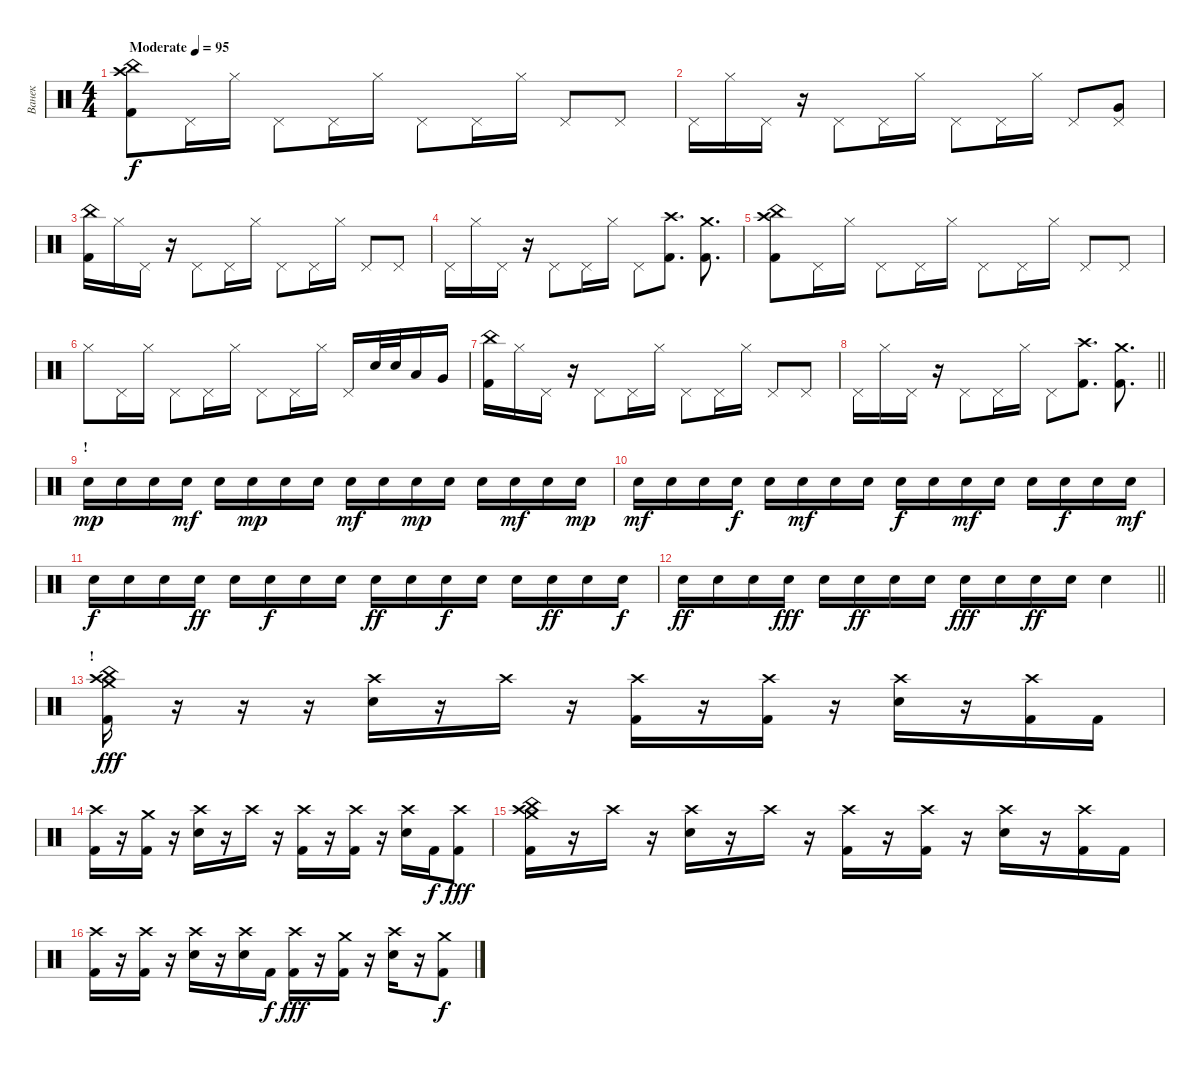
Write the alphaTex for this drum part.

\track ("Ванек" "Ванек") {instrument percussion}
\staff {score}
\articulation defaults
\ts (4 4)
\tempo (95 "Moderate")
\clef neutral
\ks c
("Crash high (hit)" "China (hit)" "Kick (hit) 2").8{dy f} "Pedal Hi-Hat (hit)".16 "Hi-Hat (closed)".16 "Pedal Hi-Hat (hit)".8 "Pedal Hi-Hat (hit)".16 "Hi-Hat (closed)".16 "Pedal Hi-Hat (hit)".8 "Pedal Hi-Hat (hit)".16 "Hi-Hat (closed)".16 "Pedal Hi-Hat (hit)".8 "Pedal Hi-Hat (hit)".8 |
"Pedal Hi-Hat (hit)".16 "Hi-Hat (closed)".16 "Pedal Hi-Hat (hit)".16 r.16 "Pedal Hi-Hat (hit)".8 "Pedal Hi-Hat (hit)".16 "Hi-Hat (closed)".16 "Pedal Hi-Hat (hit)".8 "Pedal Hi-Hat (hit)".16 "Hi-Hat (closed)".16 "Pedal Hi-Hat (hit)".8 ("Pedal Hi-Hat (hit)" "Very Low Tom (hit)").8 |
("China (hit)" "Kick (hit) 2").16 "Hi-Hat (closed)".16 "Pedal Hi-Hat (hit)".16 r.16 "Pedal Hi-Hat (hit)".8 "Pedal Hi-Hat (hit)".16 "Hi-Hat (closed)".16 "Pedal Hi-Hat (hit)".8 "Pedal Hi-Hat (hit)".16 "Hi-Hat (closed)".16 "Pedal Hi-Hat (hit)".8 "Pedal Hi-Hat (hit)".8 |
"Pedal Hi-Hat (hit)".16 "Hi-Hat (closed)".16 "Pedal Hi-Hat (hit)".16 r.16 "Pedal Hi-Hat (hit)".8 "Pedal Hi-Hat (hit)".16 "Hi-Hat (closed)".16 "Pedal Hi-Hat (hit)".8 ("Crash high (hit)" "Kick (hit) 2").8{d} ("Crash medium (hit)" "Kick (hit) 2").8{d} |
("Crash high (hit)" "China (hit)" "Kick (hit) 2").8 "Pedal Hi-Hat (hit)".16 "Hi-Hat (closed)".16 "Pedal Hi-Hat (hit)".8 "Pedal Hi-Hat (hit)".16 "Hi-Hat (closed)".16 "Pedal Hi-Hat (hit)".8 "Pedal Hi-Hat (hit)".16 "Hi-Hat (closed)".16 "Pedal Hi-Hat (hit)".8 "Pedal Hi-Hat (hit)".8 |
"Hi-Hat (closed)".8 "Pedal Hi-Hat (hit)".16 "Hi-Hat (closed)".16 "Pedal Hi-Hat (hit)".8 "Pedal Hi-Hat (hit)".16 "Hi-Hat (closed)".16 "Pedal Hi-Hat (hit)".8 "Pedal Hi-Hat (hit)".16 "Hi-Hat (closed)".16 "Pedal Hi-Hat (hit)".16 "Snare (hit) 2".32 "Snare (hit) 2".32 "Low Floor Tom (hit)".16 "Very Low Tom (hit)".16 |
("China (hit)" "Kick (hit) 2").16 "Hi-Hat (closed)".16 "Pedal Hi-Hat (hit)".16 r.16 "Pedal Hi-Hat (hit)".8 "Pedal Hi-Hat (hit)".16 "Hi-Hat (closed)".16 "Pedal Hi-Hat (hit)".8 "Pedal Hi-Hat (hit)".16 "Hi-Hat (closed)".16 "Pedal Hi-Hat (hit)".8 "Pedal Hi-Hat (hit)".8 |
\barLineRight lightlight "Pedal Hi-Hat (hit)".16 "Hi-Hat (closed)".16 "Pedal Hi-Hat (hit)".16
r.16 "Pedal Hi-Hat (hit)".8 "Pedal Hi-Hat (hit)".16 "Hi-Hat (closed)".16 "Pedal Hi-Hat (hit)".8 ("Crash high (hit)" "Kick (hit) 2").8{d} ("Crash medium (hit)" "Kick (hit) 2").8{d} |
\section ("" "!")
"Snare (hit) 2".16{dy mp} "Snare (hit) 2".16 "Snare (hit) 2".16 "Snare (hit) 2".16{dy mf} "Snare (hit) 2".16 "Snare (hit) 2".16{dy mp} "Snare (hit) 2".16 "Snare (hit) 2".16 "Snare (hit) 2".16{dy mf} "Snare (hit) 2".16 "Snare (hit) 2".16{dy mp} "Snare (hit) 2".16 "Snare (hit) 2".16 "Snare (hit) 2".16{dy mf} "Snare (hit) 2".16 "Snare (hit) 2".16{dy mp} |
"Snare (hit) 2".16{dy mf} "Snare (hit) 2".16 "Snare (hit) 2".16 "Snare (hit) 2".16{dy f} "Snare (hit) 2".16 "Snare (hit) 2".16{dy mf} "Snare (hit) 2".16 "Snare (hit) 2".16 "Snare (hit) 2".16{dy f} "Snare (hit) 2".16 "Snare (hit) 2".16{dy mf} "Snare (hit) 2".16 "Snare (hit) 2".16 "Snare (hit) 2".16{dy f} "Snare (hit) 2".16 "Snare (hit) 2".16{dy mf} |
"Snare (hit) 2".16{dy f} "Snare (hit) 2".16 "Snare (hit) 2".16 "Snare (hit) 2".16{dy ff} "Snare (hit) 2".16 "Snare (hit) 2".16{dy f} "Snare (hit) 2".16 "Snare (hit) 2".16 "Snare (hit) 2".16{dy ff} "Snare (hit) 2".16 "Snare (hit) 2".16{dy f} "Snare (hit) 2".16 "Snare (hit) 2".16 "Snare (hit) 2".16{dy ff} "Snare (hit) 2".16 "Snare (hit) 2".16{dy f} |
\barLineRight lightlight "Snare (hit) 2".16{dy ff} "Snare (hit) 2".16 "Snare (hit) 2".16 "Snare (hit) 2".16{dy fff} "Snare (hit) 2".16 "Snare (hit) 2".16{dy ff} "Snare (hit) 2".16 "Snare (hit) 2".16 "Snare (hit) 2".16{dy fff} "Snare (hit) 2".16 "Snare (hit) 2".16{dy ff} "Snare (hit) 2".16 "Snare (hit) 2".4
|
\section ("" "!")
("Crash high (hit)" "Crash medium (hit)" "China (hit)" "Kick (hit) 2").16{dy fff} r.16 r.16 r.16 ("Crash high (hit)" "Snare (hit) 2").16 r.16 "Crash high (hit)".16 r.16 ("Crash high (hit)" "Kick (hit) 2").16 r.16 ("Crash high (hit)" "Kick (hit) 2").16 r.16 ("Crash high (hit)" "Snare (hit) 2").16 r.16 ("Crash high (hit)" "Kick (hit) 2").16 "Kick (hit) 2".16 |
("Crash high (hit)" "Kick (hit) 2").16 r.16 ("Crash medium (hit)" "Kick (hit) 2").16 r.16 ("Crash high (hit)" "Snare (hit) 2").16 r.16 "Crash high (hit)".16 r.16 ("Crash high (hit)" "Kick (hit) 2").16 r.16 ("Crash high (hit)" "Kick (hit) 2").16 r.16 ("Crash high (hit)" "Snare (hit) 2").16 "Kick (hit) 2".16{dy f} ("Crash high (hit)" "Kick (hit) 2").8{dy fff} |
("Crash high (hit)" "Crash medium (hit)" "China (hit)" "Kick (hit) 2").16 r.16 "Crash high (hit)".16 r.16 ("Crash high (hit)" "Snare (hit) 2").16 r.16 "Crash high (hit)".16 r.16 ("Crash high (hit)" "Kick (hit) 2").16 r.16 ("Crash high (hit)" "Kick (hit) 2").16 r.16 ("Crash high (hit)" "Snare (hit) 2").16 r.16 ("Crash high (hit)" "Kick (hit) 2").16 "Kick (hit) 2".16 |
("Crash high (hit)" "Kick (hit) 2").16 r.16 ("Crash high (hit)" "Kick (hit) 2").16 r.16 ("Crash high (hit)" "Snare (hit) 2").16 r.16 ("Crash high (hit)" "Snare (hit) 2").16 "Kick (hit) 2".16{dy f} ("Crash high (hit)" "Kick (hit) 2").16{dy fff} r.16 ("Crash medium (hit)" "Kick (hit) 2").16 r.16 ("Crash high (hit)" "Snare (hit) 2").16 r.16 ("Crash medium (hit)" "Kick (hit) 2").8{dy f}
